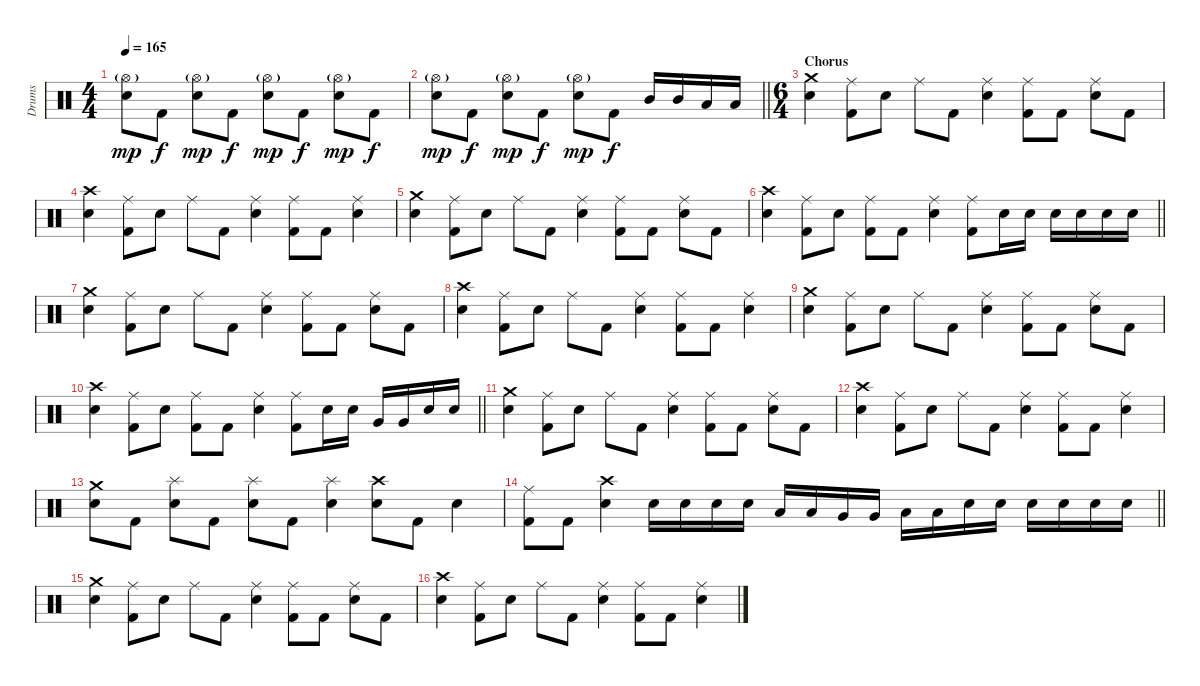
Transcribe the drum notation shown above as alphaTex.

\track ("Drums" "Drums") {instrument percussion}
\staff {score}
\articulation defaults
\ts (4 4)
\tempo 165
\clef neutral
\ks c
("Snare (hit) 2" "Hi-Hat (open)"{g}).8{dy mp} "Kick (hit) 2".8{dy f} ("Snare (hit) 2" "Hi-Hat (open)"{g}).8{dy mp} "Kick (hit) 2".8{dy f} ("Snare (hit) 2" "Hi-Hat (open)"{g}).8{dy mp} "Kick (hit) 2".8{dy f} ("Snare (hit) 2" "Hi-Hat (open)"{g}).8{dy mp} "Kick (hit) 2".8{dy f} |
\barLineRight lightlight
("Snare (hit) 2" "Hi-Hat (open)"{g}).8{dy mp} "Kick (hit) 2".8{dy f} ("Snare (hit) 2" "Hi-Hat (open)"{g}).8{dy mp} "Kick (hit) 2".8{dy f} ("Snare (hit) 2" "Hi-Hat (open)"{g}).8{dy mp} "Kick (hit) 2".8{dy f} "Mid Tom (hit)".16 "Mid Tom (hit)".16 "Low Tom (hit)".16 "Low Tom (hit)".16 |
\ts (6 4)
\section ("" "Chorus")
("Snare (hit) 2" "Crash medium (hit)").4 ("Kick (hit) 2" "Ride (middle)").8 "Snare (hit) 2".8 "Ride (middle)".8 "Kick (hit) 2".8 ("Snare (hit) 2" "Ride (middle)").4 ("Kick (hit) 2" "Ride (middle)").8 "Kick (hit) 2".8 ("Snare (hit) 2" "Ride (middle)").8 "Kick (hit) 2".8 |
("Snare (hit) 2" "Crash high (hit)").4 ("Kick (hit) 2" "Ride (middle)").8 "Snare (hit) 2".8 "Ride (middle)".8 "Kick (hit) 2".8 ("Snare (hit) 2" "Ride (middle)").4 ("Kick (hit) 2" "Ride (middle)").8 "Kick (hit) 2".8 ("Snare (hit) 2" "Ride (middle)").4 |
("Snare (hit) 2" "Crash medium (hit)").4 ("Kick (hit) 2" "Ride (middle)").8 "Snare (hit) 2".8 "Ride (middle)".8 "Kick (hit) 2".8 ("Snare (hit) 2" "Ride (middle)").4 ("Kick (hit) 2" "Ride (middle)").8 "Kick (hit) 2".8 ("Snare (hit) 2" "Ride (middle)").8 "Kick (hit) 2".8 |
\barLineRight lightlight
("Snare (hit) 2" "Crash high (hit)").4 ("Kick (hit) 2" "Ride (middle)").8 "Snare (hit) 2".8 ("Kick (hit) 2" "Ride (middle)").8 "Kick (hit) 2".8 ("Snare (hit) 2" "Ride (middle)").4 ("Kick (hit) 2" "Ride (middle)").8 "Snare (hit) 2".16 "Snare (hit) 2".16 "Snare (hit) 2".16 "Snare (hit) 2".16 "Snare (hit) 2".16 "Snare (hit) 2".16 |
\section ("" "")
("Snare (hit) 2" "Crash medium (hit)").4 ("Kick (hit) 2" "Ride (middle)").8 "Snare (hit) 2".8 "Ride (middle)".8 "Kick (hit) 2".8 ("Snare (hit) 2" "Ride (middle)").4 ("Kick (hit) 2" "Ride (middle)").8 "Kick (hit) 2".8 ("Snare (hit) 2" "Ride (middle)").8 "Kick (hit) 2".8 |
("Snare (hit) 2" "Crash high (hit)").4 ("Kick (hit) 2" "Ride (middle)").8 "Snare (hit) 2".8 "Ride (middle)".8 "Kick (hit) 2".8 ("Snare (hit) 2" "Ride (middle)").4 ("Kick (hit) 2" "Ride (middle)").8 "Kick (hit) 2".8 ("Snare (hit) 2" "Ride (middle)").4 |
("Snare (hit) 2" "Crash medium (hit)").4 ("Kick (hit) 2" "Ride (middle)").8 "Snare (hit) 2".8 "Ride (middle)".8 "Kick (hit) 2".8 ("Snare (hit) 2" "Ride (middle)").4 ("Kick (hit) 2" "Ride (middle)").8 "Kick (hit) 2".8 ("Snare (hit) 2" "Ride (middle)").8 "Kick (hit) 2".8 |
\barLineRight lightlight
("Snare (hit) 2" "Crash high (hit)").4 ("Kick (hit) 2" "Ride (middle)").8 "Snare (hit) 2".8 ("Kick (hit) 2" "Ride (middle)").8 "Kick (hit) 2".8 ("Snare (hit) 2" "Ride (middle)").4 ("Kick (hit) 2" "Ride (middle)").8 "Snare (hit) 2".16 "Snare (hit) 2".16 "Very Low Tom (hit)".16 "Very Low Tom (hit)".16 "Snare (hit) 2".16 "Snare (hit) 2".16 |
\section ("" "")
("Snare (hit) 2" "Crash medium (hit)").4 ("Kick (hit) 2" "Ride (middle)").8 "Snare (hit) 2".8 "Ride (middle)".8 "Kick (hit) 2".8 ("Snare (hit) 2" "Ride (middle)").4 ("Kick (hit) 2" "Ride (middle)").8 "Kick (hit) 2".8 ("Snare (hit) 2" "Ride (middle)").8 "Kick (hit) 2".8 |
("Snare (hit) 2" "Crash high (hit)").4 ("Kick (hit) 2" "Ride (middle)").8 "Snare (hit) 2".8 "Ride (middle)".8 "Kick (hit) 2".8 ("Snare (hit) 2" "Ride (middle)").4 ("Kick (hit) 2" "Ride (middle)").8 "Kick (hit) 2".8 ("Snare (hit) 2" "Ride (middle)").4 |
("Snare (hit) 2" "Crash medium (hit)").8 "Kick (hit) 2".8 ("Snare (hit) 2" "Splash (hit)").8 "Kick (hit) 2".8 ("Snare (hit) 2" "Splash (hit)").8 "Kick (hit) 2".8 ("Snare (hit) 2" "Splash (hit)").4 ("Snare (hit) 2" "Crash high (hit)").8 "Kick (hit) 2".8 "Snare (hit) 2".4 |
\barLineRight lightlight
("Kick (hit) 2" "Ride (middle)").8 "Kick (hit) 2".8 ("Snare (hit) 2" "Crash high (hit)").4 "Snare (hit) 2".16 "Snare (hit) 2".16 "Snare (hit) 2".16 "Snare (hit) 2".16 "Low Tom (hit)".16 "Low Tom (hit)".16 "Very Low Tom (hit)".16 "Very Low Tom (hit)".16 "Low Floor Tom (hit)".16 "Low Floor Tom (hit)".16 "Snare (hit) 2".16 "Snare (hit) 2".16 "Snare (hit) 2".16 "Snare (hit) 2".16 "Snare (hit) 2".16 "Snare (hit) 2".16 |
\section ("" "")
("Snare (hit) 2" "Crash medium (hit)").4 ("Kick (hit) 2" "Ride (middle)").8 "Snare (hit) 2".8 "Ride (middle)".8 "Kick (hit) 2".8 ("Snare (hit) 2" "Ride (middle)").4 ("Kick (hit) 2" "Ride (middle)").8 "Kick (hit) 2".8 ("Snare (hit) 2" "Ride (middle)").8 "Kick (hit) 2".8 |
("Snare (hit) 2" "Crash high (hit)").4 ("Kick (hit) 2" "Ride (middle)").8 "Snare (hit) 2".8 "Ride (middle)".8 "Kick (hit) 2".8 ("Snare (hit) 2" "Ride (middle)").4 ("Kick (hit) 2" "Ride (middle)").8 "Kick (hit) 2".8 ("Snare (hit) 2" "Ride (middle)").4
